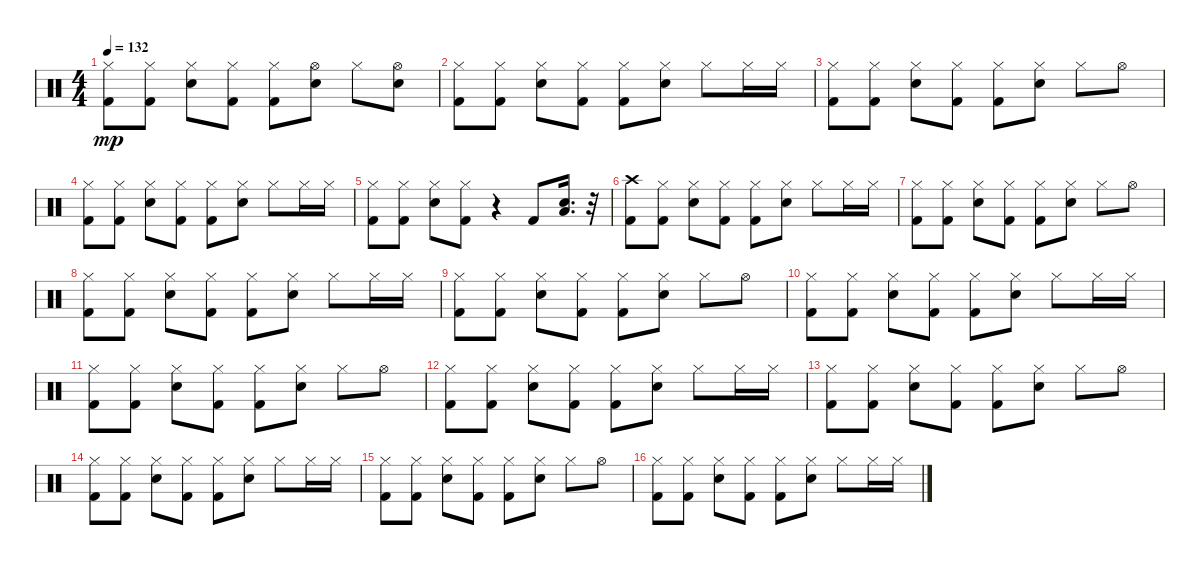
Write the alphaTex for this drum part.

\track "" {instrument percussion}
\staff {score}
\articulation defaults
\ts (4 4)
\tempo 132
\clef neutral
\ks c
("Hi-Hat (closed)" "Kick (hit) 2").8{dy mp} ("Hi-Hat (closed)" "Kick (hit) 2").8 ("Snare (hit) 2" "Hi-Hat (closed)").8 ("Hi-Hat (closed)" "Kick (hit) 2").8 ("Hi-Hat (closed)" "Kick (hit) 2").8 ("Snare (hit) 2" "Hi-Hat (open)").8 "Hi-Hat (closed)".8 ("Snare (hit) 2" "Hi-Hat (open)").8 |
("Hi-Hat (closed)" "Kick (hit) 2").8 ("Hi-Hat (closed)" "Kick (hit) 2").8 ("Snare (hit) 2" "Hi-Hat (closed)").8 ("Hi-Hat (closed)" "Kick (hit) 2").8 ("Hi-Hat (closed)" "Kick (hit) 2").8 ("Snare (hit) 2" "Hi-Hat (closed)").8 "Hi-Hat (closed)".8 "Hi-Hat (closed)".16 "Hi-Hat (closed)".16 |
("Hi-Hat (closed)" "Kick (hit) 2").8 ("Hi-Hat (closed)" "Kick (hit) 2").8 ("Snare (hit) 2" "Hi-Hat (closed)").8 ("Hi-Hat (closed)" "Kick (hit) 2").8 ("Hi-Hat (closed)" "Kick (hit) 2").8 ("Snare (hit) 2" "Hi-Hat (closed)").8 "Hi-Hat (closed)".8 "Hi-Hat (open)".8 |
("Hi-Hat (closed)" "Kick (hit) 2").8 ("Hi-Hat (closed)" "Kick (hit) 2").8 ("Snare (hit) 2" "Hi-Hat (closed)").8 ("Hi-Hat (closed)" "Kick (hit) 2").8 ("Hi-Hat (closed)" "Kick (hit) 2").8 ("Snare (hit) 2" "Hi-Hat (closed)").8 "Hi-Hat (closed)".8 "Hi-Hat (closed)".16 "Hi-Hat (closed)".16 |
("Hi-Hat (closed)" "Kick (hit) 2").8 ("Hi-Hat (closed)" "Kick (hit) 2").8 ("Snare (hit) 2" "Hi-Hat (closed)").8 ("Hi-Hat (closed)" "Kick (hit) 2").8 r.4 "Kick (hit) 2".8 ("Low Floor Tom (hit)" "Snare (hit) 2").16{d} r.32 |
("Crash high (hit)" "Kick (hit) 2").8 ("Hi-Hat (closed)" "Kick (hit) 2").8 ("Snare (hit) 2" "Hi-Hat (closed)").8 ("Hi-Hat (closed)" "Kick (hit) 2").8 ("Hi-Hat (closed)" "Kick (hit) 2").8 ("Snare (hit) 2" "Hi-Hat (closed)").8 "Hi-Hat (closed)".8 "Hi-Hat (closed)".16 "Hi-Hat (closed)".16 |
("Hi-Hat (closed)" "Kick (hit) 2").8 ("Hi-Hat (closed)" "Kick (hit) 2").8 ("Snare (hit) 2" "Hi-Hat (closed)").8 ("Hi-Hat (closed)" "Kick (hit) 2").8 ("Hi-Hat (closed)" "Kick (hit) 2").8 ("Snare (hit) 2" "Hi-Hat (closed)").8 "Hi-Hat (closed)".8 "Hi-Hat (open)".8 |
("Hi-Hat (closed)" "Kick (hit) 2").8 ("Hi-Hat (closed)" "Kick (hit) 2").8 ("Snare (hit) 2" "Hi-Hat (closed)").8 ("Hi-Hat (closed)" "Kick (hit) 2").8 ("Hi-Hat (closed)" "Kick (hit) 2").8 ("Snare (hit) 2" "Hi-Hat (closed)").8 "Hi-Hat (closed)".8 "Hi-Hat (closed)".16 "Hi-Hat (closed)".16 |
("Hi-Hat (closed)" "Kick (hit) 2").8 ("Hi-Hat (closed)" "Kick (hit) 2").8 ("Snare (hit) 2" "Hi-Hat (closed)").8 ("Hi-Hat (closed)" "Kick (hit) 2").8 ("Hi-Hat (closed)" "Kick (hit) 2").8 ("Snare (hit) 2" "Hi-Hat (closed)").8 "Hi-Hat (closed)".8 "Hi-Hat (open)".8 |
("Hi-Hat (closed)" "Kick (hit) 2").8 ("Hi-Hat (closed)" "Kick (hit) 2").8 ("Snare (hit) 2" "Hi-Hat (closed)").8 ("Hi-Hat (closed)" "Kick (hit) 2").8 ("Hi-Hat (closed)" "Kick (hit) 2").8 ("Snare (hit) 2" "Hi-Hat (closed)").8 "Hi-Hat (closed)".8 "Hi-Hat (closed)".16 "Hi-Hat (closed)".16 |
("Hi-Hat (closed)" "Kick (hit) 2").8 ("Hi-Hat (closed)" "Kick (hit) 2").8 ("Snare (hit) 2" "Hi-Hat (closed)").8 ("Hi-Hat (closed)" "Kick (hit) 2").8 ("Hi-Hat (closed)" "Kick (hit) 2").8 ("Snare (hit) 2" "Hi-Hat (closed)").8 "Hi-Hat (closed)".8 "Hi-Hat (open)".8 |
("Hi-Hat (closed)" "Kick (hit) 2").8 ("Hi-Hat (closed)" "Kick (hit) 2").8 ("Snare (hit) 2" "Hi-Hat (closed)").8 ("Hi-Hat (closed)" "Kick (hit) 2").8 ("Hi-Hat (closed)" "Kick (hit) 2").8 ("Snare (hit) 2" "Hi-Hat (closed)").8 "Hi-Hat (closed)".8 "Hi-Hat (closed)".16 "Hi-Hat (closed)".16 |
("Hi-Hat (closed)" "Kick (hit) 2").8 ("Hi-Hat (closed)" "Kick (hit) 2").8 ("Snare (hit) 2" "Hi-Hat (closed)").8 ("Hi-Hat (closed)" "Kick (hit) 2").8 ("Hi-Hat (closed)" "Kick (hit) 2").8 ("Snare (hit) 2" "Hi-Hat (closed)").8 "Hi-Hat (closed)".8 "Hi-Hat (open)".8 |
("Hi-Hat (closed)" "Kick (hit) 2").8 ("Hi-Hat (closed)" "Kick (hit) 2").8 ("Snare (hit) 2" "Hi-Hat (closed)").8 ("Hi-Hat (closed)" "Kick (hit) 2").8 ("Hi-Hat (closed)" "Kick (hit) 2").8 ("Snare (hit) 2" "Hi-Hat (closed)").8 "Hi-Hat (closed)".8 "Hi-Hat (closed)".16 "Hi-Hat (closed)".16 |
("Hi-Hat (closed)" "Kick (hit) 2").8 ("Hi-Hat (closed)" "Kick (hit) 2").8 ("Snare (hit) 2" "Hi-Hat (closed)").8 ("Hi-Hat (closed)" "Kick (hit) 2").8 ("Hi-Hat (closed)" "Kick (hit) 2").8 ("Snare (hit) 2" "Hi-Hat (closed)").8 "Hi-Hat (closed)".8 "Hi-Hat (open)".8 |
("Hi-Hat (closed)" "Kick (hit) 2").8 ("Hi-Hat (closed)" "Kick (hit) 2").8 ("Snare (hit) 2" "Hi-Hat (closed)").8 ("Hi-Hat (closed)" "Kick (hit) 2").8 ("Hi-Hat (closed)" "Kick (hit) 2").8 ("Snare (hit) 2" "Hi-Hat (closed)").8 "Hi-Hat (closed)".8 "Hi-Hat (closed)".16 "Hi-Hat (closed)".16
